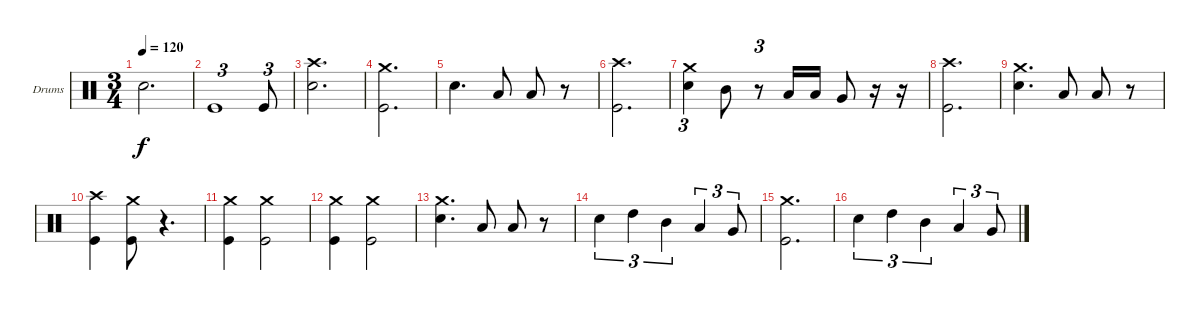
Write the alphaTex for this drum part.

\bracketExtendMode groupsimilarinstruments
\firstSystemTrackNameOrientation horizontal
\otherSystemsTrackNameOrientation horizontal
\track ("Drumkit" "Drums") {instrument percussion}
\staff {score}
\articulation defaults
\ts (3 4)
\tempo 120
\clef neutral
\ks c "Snare (hit) 2".2{d dy f}
|
"Kick (hit)".1{tu (3 2)} "Kick (hit)".8{tu (3 2)} |
("Crash high (hit)" "Snare (hit) 2").2{d} |
("Crash medium (hit)" "Kick (hit)").2{d} |
"Snare (hit) 2".4{d} "Low Tom (hit)".8 "Low Tom (hit)".8 r.8 |
("Crash high (hit)" "Kick (hit)").2{d} |
("Crash medium (hit)" "Snare (hit) 2").4{tu (3 2)} "Mid Tom (hit)".8 r.8{tu (3 2)} "Low Tom (hit)".16 "Low Tom (hit)".16 "Very Low Tom (hit)".8 r.16 r.16 |
("Crash high (hit)" "Kick (hit)").2{d} |
("Crash medium (hit)" "Snare (hit) 2").4{d} "Low Tom (hit)".8 "Low Tom (hit)".8 r.8 |
("Crash high (hit)" "Kick (hit)").4 ("Crash medium (hit)" "Kick (hit)").8 r.4{d} |
("Crash medium (hit)" "Kick (hit)").4 ("Crash medium (hit)" "Kick (hit)").2 |
("Crash medium (hit)" "Kick (hit)").4 ("Crash medium (hit)" "Kick (hit)").2 |
("Crash medium (hit)" "Snare (hit) 2").4{d} "Low Tom (hit)".8 "Low Tom (hit)".8 r.8 |
"Snare (hit) 2".4{tu (3 2)} "High Tom (hit)".4{tu (3 2)} "Mid Tom (hit)".4{tu (3 2)} "Low Tom (hit)".4{tu (3 2)} "Very Low Tom (hit)".8{tu (3 2)} |
("Crash medium (hit)" "Kick (hit)").2{d} |
"Snare (hit) 2".4{tu (3 2)} "High Tom (hit)".4{tu (3 2)} "Mid Tom (hit)".4{tu (3 2)} "Low Tom (hit)".4{tu (3 2)} "Very Low Tom (hit)".8{tu (3 2)}
